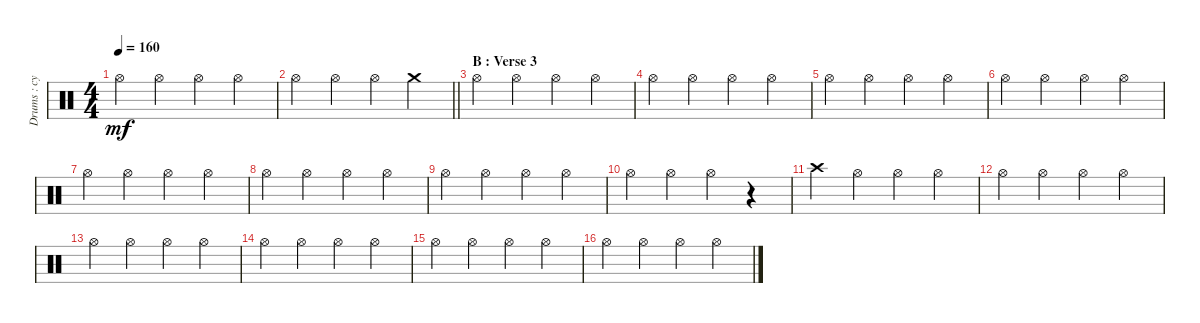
\track ("Drums : cymbals" "Drums : cy") {instrument percussion}
\staff {score}
\articulation defaults
\ts (4 4)
\tempo 160
\clef neutral
\ks c "Hi-Hat (open)".4{dy mf} "Hi-Hat (open)".4 "Hi-Hat (open)".4 "Hi-Hat (open)".4
|
\barLineRight lightlight "Hi-Hat (open)".4 "Hi-Hat (open)".4 "Hi-Hat (open)".4 "Crash medium (hit)".4
|
\section ("" "B : Verse 3")
"Hi-Hat (open)".4 "Hi-Hat (open)".4 "Hi-Hat (open)".4 "Hi-Hat (open)".4 |
"Hi-Hat (open)".4 "Hi-Hat (open)".4 "Hi-Hat (open)".4 "Hi-Hat (open)".4 |
"Hi-Hat (open)".4 "Hi-Hat (open)".4 "Hi-Hat (open)".4 "Hi-Hat (open)".4 |
"Hi-Hat (open)".4 "Hi-Hat (open)".4 "Hi-Hat (open)".4 "Hi-Hat (open)".4 |
"Hi-Hat (open)".4 "Hi-Hat (open)".4 "Hi-Hat (open)".4 "Hi-Hat (open)".4 |
"Hi-Hat (open)".4 "Hi-Hat (open)".4 "Hi-Hat (open)".4 "Hi-Hat (open)".4 |
"Hi-Hat (open)".4 "Hi-Hat (open)".4 "Hi-Hat (open)".4 "Hi-Hat (open)".4 |
"Hi-Hat (open)".4 "Hi-Hat (open)".4 "Hi-Hat (open)".4 r.4 |
"Crash high (hit)".4 "Hi-Hat (open)".4 "Hi-Hat (open)".4 "Hi-Hat (open)".4 |
"Hi-Hat (open)".4 "Hi-Hat (open)".4 "Hi-Hat (open)".4 "Hi-Hat (open)".4 |
"Hi-Hat (open)".4 "Hi-Hat (open)".4 "Hi-Hat (open)".4 "Hi-Hat (open)".4 |
"Hi-Hat (open)".4 "Hi-Hat (open)".4 "Hi-Hat (open)".4 "Hi-Hat (open)".4 |
"Hi-Hat (open)".4 "Hi-Hat (open)".4 "Hi-Hat (open)".4 "Hi-Hat (open)".4 |
"Hi-Hat (open)".4 "Hi-Hat (open)".4 "Hi-Hat (open)".4 "Hi-Hat (open)".4
